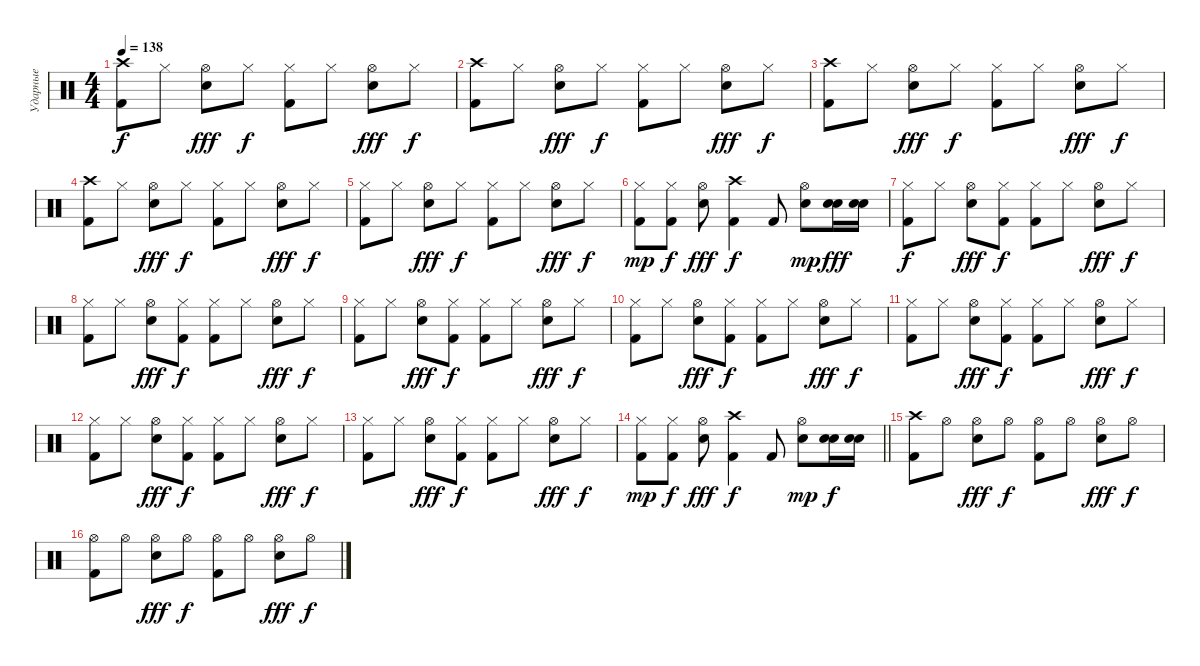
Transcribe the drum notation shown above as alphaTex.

\track ("Ударные" "Ударные") {instrument percussion}
\staff {score}
\articulation defaults
\ts (4 4)
\tempo 138
\clef neutral
\ks c
("Crash high (hit)" "Kick (hit) 2").8{dy f} "Hi-Hat (closed)".8 ("Hi-Hat (open)" "Electric Snare (hit)").8{dy fff} "Hi-Hat (closed)".8{dy f} ("Hi-Hat (closed)" "Kick (hit) 2").8 "Hi-Hat (closed)".8 ("Hi-Hat (open)" "Electric Snare (hit)").8{dy fff} "Hi-Hat (closed)".8{dy f} |
("Crash high (hit)" "Kick (hit) 2").8 "Hi-Hat (closed)".8 ("Hi-Hat (open)" "Electric Snare (hit)").8{dy fff} "Hi-Hat (closed)".8{dy f} ("Hi-Hat (closed)" "Kick (hit) 2").8 "Hi-Hat (closed)".8 ("Hi-Hat (open)" "Electric Snare (hit)").8{dy fff} "Hi-Hat (closed)".8{dy f} |
("Crash high (hit)" "Kick (hit) 2").8 "Hi-Hat (closed)".8 ("Hi-Hat (open)" "Electric Snare (hit)").8{dy fff} "Hi-Hat (closed)".8{dy f} ("Hi-Hat (closed)" "Kick (hit) 2").8 "Hi-Hat (closed)".8 ("Hi-Hat (open)" "Electric Snare (hit)").8{dy fff} "Hi-Hat (closed)".8{dy f} |
("Crash high (hit)" "Kick (hit) 2").8 "Hi-Hat (closed)".8 ("Hi-Hat (open)" "Electric Snare (hit)").8{dy fff} "Hi-Hat (closed)".8{dy f} ("Hi-Hat (closed)" "Kick (hit) 2").8 "Hi-Hat (closed)".8 ("Hi-Hat (open)" "Electric Snare (hit)").8{dy fff} "Hi-Hat (closed)".8{dy f} |
("Hi-Hat (closed)" "Kick (hit) 2").8 "Hi-Hat (closed)".8 ("Hi-Hat (open)" "Electric Snare (hit)").8{dy fff} "Hi-Hat (closed)".8{dy f} ("Hi-Hat (closed)" "Kick (hit) 2").8 "Hi-Hat (closed)".8 ("Hi-Hat (open)" "Electric Snare (hit)").8{dy fff} "Hi-Hat (closed)".8{dy f} |
("Hi-Hat (closed)" "Kick (hit) 2").8{dy mp} ("Hi-Hat (closed)" "Kick (hit) 2").8{dy f} ("Hi-Hat (open)" "Electric Snare (hit)").8{dy fff} ("Crash high (hit)" "Kick (hit) 2").4{dy f} "Kick (hit) 2".8 ("Hi-Hat (open)" "Electric Snare (hit)").8{dy mp} ("Electric Snare (hit)" "Electric Snare (hit)").16{dy fff} ("Electric Snare (hit)" "Electric Snare (hit)").16 |
("Hi-Hat (closed)" "Kick (hit) 2").8{dy f} "Hi-Hat (closed)".8 ("Hi-Hat (open)" "Electric Snare (hit)").8{dy fff} ("Hi-Hat (closed)" "Kick (hit) 2").8{dy f} ("Hi-Hat (closed)" "Kick (hit) 2").8 "Hi-Hat (closed)".8 ("Hi-Hat (open)" "Electric Snare (hit)").8{dy fff} "Hi-Hat (closed)".8{dy f} |
("Hi-Hat (closed)" "Kick (hit) 2").8 "Hi-Hat (closed)".8 ("Hi-Hat (open)" "Electric Snare (hit)").8{dy fff} ("Hi-Hat (closed)" "Kick (hit) 2").8{dy f} ("Hi-Hat (closed)" "Kick (hit) 2").8 "Hi-Hat (closed)".8 ("Hi-Hat (open)" "Electric Snare (hit)").8{dy fff} "Hi-Hat (closed)".8{dy f} |
("Hi-Hat (closed)" "Kick (hit) 2").8 "Hi-Hat (closed)".8 ("Hi-Hat (open)" "Electric Snare (hit)").8{dy fff} ("Hi-Hat (closed)" "Kick (hit) 2").8{dy f} ("Hi-Hat (closed)" "Kick (hit) 2").8 "Hi-Hat (closed)".8 ("Hi-Hat (open)" "Electric Snare (hit)").8{dy fff} "Hi-Hat (closed)".8{dy f} |
("Hi-Hat (closed)" "Kick (hit) 2").8 "Hi-Hat (closed)".8 ("Hi-Hat (open)" "Electric Snare (hit)").8{dy fff} ("Hi-Hat (closed)" "Kick (hit) 2").8{dy f} ("Hi-Hat (closed)" "Kick (hit) 2").8 "Hi-Hat (closed)".8 ("Hi-Hat (open)" "Electric Snare (hit)").8{dy fff} "Hi-Hat (closed)".8{dy f} |
("Hi-Hat (closed)" "Kick (hit) 2").8 "Hi-Hat (closed)".8 ("Hi-Hat (open)" "Electric Snare (hit)").8{dy fff} ("Hi-Hat (closed)" "Kick (hit) 2").8{dy f} ("Hi-Hat (closed)" "Kick (hit) 2").8 "Hi-Hat (closed)".8 ("Hi-Hat (open)" "Electric Snare (hit)").8{dy fff} "Hi-Hat (closed)".8{dy f} |
("Hi-Hat (closed)" "Kick (hit) 2").8 "Hi-Hat (closed)".8 ("Hi-Hat (open)" "Electric Snare (hit)").8{dy fff} ("Hi-Hat (closed)" "Kick (hit) 2").8{dy f} ("Hi-Hat (closed)" "Kick (hit) 2").8 "Hi-Hat (closed)".8 ("Hi-Hat (open)" "Electric Snare (hit)").8{dy fff} "Hi-Hat (closed)".8{dy f} |
("Hi-Hat (closed)" "Kick (hit) 2").8 "Hi-Hat (closed)".8 ("Hi-Hat (open)" "Electric Snare (hit)").8{dy fff} ("Hi-Hat (closed)" "Kick (hit) 2").8{dy f} ("Hi-Hat (closed)" "Kick (hit) 2").8 "Hi-Hat (closed)".8 ("Hi-Hat (open)" "Electric Snare (hit)").8{dy fff} "Hi-Hat (closed)".8{dy f} |
\barLineRight lightlight
("Hi-Hat (closed)" "Kick (hit) 2").8{dy mp} ("Hi-Hat (closed)" "Kick (hit) 2").8{dy f} ("Hi-Hat (open)" "Electric Snare (hit)").8{dy fff} ("Crash high (hit)" "Kick (hit) 2").4{dy f} "Kick (hit) 2".8 ("Hi-Hat (open)" "Electric Snare (hit)").8{dy mp} ("Electric Snare (hit)" "Electric Snare (hit)").16{dy f} ("Electric Snare (hit)" "Electric Snare (hit)").16 |
("Crash high (hit)" "Kick (hit) 2").8 "Hi-Hat (open)".8 ("Hi-Hat (open)" "Electric Snare (hit)").8{dy fff} "Hi-Hat (open)".8{dy f} ("Hi-Hat (open)" "Kick (hit) 2").8 "Hi-Hat (open)".8 ("Hi-Hat (open)" "Electric Snare (hit)").8{dy fff} "Hi-Hat (open)".8{dy f} |
("Hi-Hat (open)" "Kick (hit) 2").8 "Hi-Hat (open)".8 ("Hi-Hat (open)" "Electric Snare (hit)").8{dy fff} "Hi-Hat (open)".8{dy f} ("Hi-Hat (open)" "Kick (hit) 2").8 "Hi-Hat (open)".8 ("Hi-Hat (open)" "Electric Snare (hit)").8{dy fff} "Hi-Hat (open)".8{dy f}
